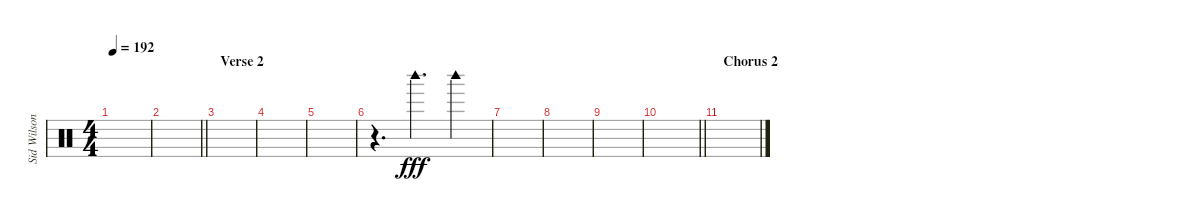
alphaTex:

\track ("Sid Wilson" "Sid Wilson") {instrument percussion}
\staff {score}
\articulation defaults
\ts (4 4)
\tempo 192
\clef neutral
\ks c
|
\barLineRight lightlight
|
\section ("" "Verse 2")
|
|
|
r.4{d} "Woodblock high (hit)".4{d dy fff} "Woodblock high (hit)".4 |
|
|
|
\barLineRight lightlight
|
\section ("" "Chorus 2")
